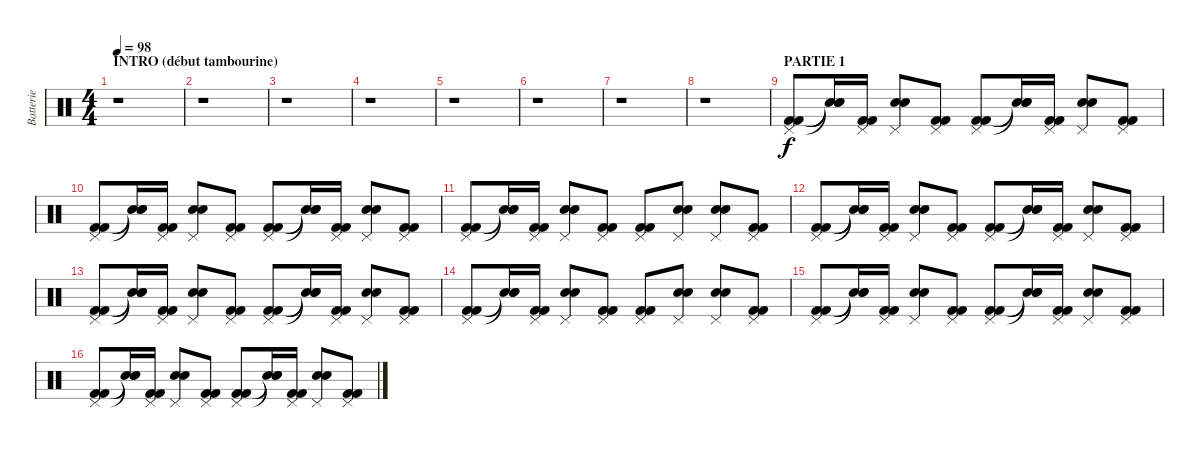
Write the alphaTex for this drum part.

\track ("Batterie" "Batterie") {instrument percussion}
\staff {score}
\articulation defaults
\ts (4 4)
\section ("" "INTRO (début tambourine)")
\tempo 98
\clef neutral
\ks c
r.1{dy f} |
r.1 |
r.1 |
r.1 |
r.1 |
r.1 |
r.1 |
r.1 |
\section ("" "PARTIE 1")
("Pedal Hi-Hat (hit)" "Kick (hit) 2" "Kick (hit) 2").8 ("Snare (hit)"{t} "Snare (hit)"{t} "Snare (hit)"{t}).16 ("Pedal Hi-Hat (hit)" "Kick (hit) 2" "Kick (hit) 2").16 ("Pedal Hi-Hat (hit)" "Electric Snare (hit)" "Electric Snare (hit)").8 ("Pedal Hi-Hat (hit)" "Kick (hit) 2" "Kick (hit) 2").8 ("Pedal Hi-Hat (hit)" "Kick (hit) 2" "Kick (hit) 2").8 ("Snare (hit)"{t} "Snare (hit)"{t} "Snare (hit)"{t}).16 ("Pedal Hi-Hat (hit)" "Kick (hit) 2" "Kick (hit) 2").16 ("Pedal Hi-Hat (hit)" "Electric Snare (hit)" "Electric Snare (hit)").8 ("Pedal Hi-Hat (hit)" "Kick (hit) 2" "Kick (hit) 2").8 |
("Pedal Hi-Hat (hit)" "Kick (hit) 2" "Kick (hit) 2").8 ("Snare (hit)"{t} "Snare (hit)"{t} "Snare (hit)"{t}).16 ("Pedal Hi-Hat (hit)" "Kick (hit) 2" "Kick (hit) 2").16 ("Pedal Hi-Hat (hit)" "Electric Snare (hit)" "Electric Snare (hit)").8 ("Pedal Hi-Hat (hit)" "Kick (hit) 2" "Kick (hit) 2").8 ("Pedal Hi-Hat (hit)" "Kick (hit) 2" "Kick (hit) 2").8 ("Snare (hit)"{t} "Snare (hit)"{t} "Snare (hit)"{t}).16 ("Pedal Hi-Hat (hit)" "Kick (hit) 2" "Kick (hit) 2").16 ("Pedal Hi-Hat (hit)" "Electric Snare (hit)" "Electric Snare (hit)").8 ("Pedal Hi-Hat (hit)" "Kick (hit) 2" "Kick (hit) 2").8 |
("Pedal Hi-Hat (hit)" "Kick (hit) 2" "Kick (hit) 2").8 ("Snare (hit)"{t} "Snare (hit)"{t} "Snare (hit)"{t}).16 ("Pedal Hi-Hat (hit)" "Kick (hit) 2" "Kick (hit) 2").16 ("Pedal Hi-Hat (hit)" "Electric Snare (hit)" "Electric Snare (hit)").8 ("Pedal Hi-Hat (hit)" "Kick (hit) 2" "Kick (hit) 2").8 ("Pedal Hi-Hat (hit)" "Kick (hit) 2" "Kick (hit) 2").8 ("Pedal Hi-Hat (hit)" "Electric Snare (hit)" "Electric Snare (hit)").8 ("Pedal Hi-Hat (hit)" "Electric Snare (hit)" "Electric Snare (hit)").8 ("Pedal Hi-Hat (hit)" "Kick (hit) 2" "Kick (hit) 2").8 |
("Pedal Hi-Hat (hit)" "Kick (hit) 2" "Kick (hit) 2").8 ("Snare (hit)"{t} "Snare (hit)"{t} "Snare (hit)"{t}).16 ("Pedal Hi-Hat (hit)" "Kick (hit) 2" "Kick (hit) 2").16 ("Pedal Hi-Hat (hit)" "Electric Snare (hit)" "Electric Snare (hit)").8 ("Pedal Hi-Hat (hit)" "Kick (hit) 2" "Kick (hit) 2").8 ("Pedal Hi-Hat (hit)" "Kick (hit) 2" "Kick (hit) 2").8 ("Snare (hit)"{t} "Snare (hit)"{t} "Snare (hit)"{t}).16 ("Pedal Hi-Hat (hit)" "Kick (hit) 2" "Kick (hit) 2").16 ("Pedal Hi-Hat (hit)" "Electric Snare (hit)" "Electric Snare (hit)").8 ("Pedal Hi-Hat (hit)" "Kick (hit) 2" "Kick (hit) 2").8 |
("Pedal Hi-Hat (hit)" "Kick (hit) 2" "Kick (hit) 2").8 ("Snare (hit)"{t} "Snare (hit)"{t} "Snare (hit)"{t}).16 ("Pedal Hi-Hat (hit)" "Kick (hit) 2" "Kick (hit) 2").16 ("Pedal Hi-Hat (hit)" "Electric Snare (hit)" "Electric Snare (hit)").8 ("Pedal Hi-Hat (hit)" "Kick (hit) 2" "Kick (hit) 2").8 ("Pedal Hi-Hat (hit)" "Kick (hit) 2" "Kick (hit) 2").8 ("Snare (hit)"{t} "Snare (hit)"{t} "Snare (hit)"{t}).16 ("Pedal Hi-Hat (hit)" "Kick (hit) 2" "Kick (hit) 2").16 ("Pedal Hi-Hat (hit)" "Electric Snare (hit)" "Electric Snare (hit)").8 ("Pedal Hi-Hat (hit)" "Kick (hit) 2" "Kick (hit) 2").8 |
("Pedal Hi-Hat (hit)" "Kick (hit) 2" "Kick (hit) 2").8 ("Snare (hit)"{t} "Snare (hit)"{t} "Snare (hit)"{t}).16 ("Pedal Hi-Hat (hit)" "Kick (hit) 2" "Kick (hit) 2").16 ("Pedal Hi-Hat (hit)" "Electric Snare (hit)" "Electric Snare (hit)").8 ("Pedal Hi-Hat (hit)" "Kick (hit) 2" "Kick (hit) 2").8 ("Pedal Hi-Hat (hit)" "Kick (hit) 2" "Kick (hit) 2").8 ("Pedal Hi-Hat (hit)" "Electric Snare (hit)" "Electric Snare (hit)").8 ("Pedal Hi-Hat (hit)" "Electric Snare (hit)" "Electric Snare (hit)").8 ("Pedal Hi-Hat (hit)" "Kick (hit) 2" "Kick (hit) 2").8 |
("Pedal Hi-Hat (hit)" "Kick (hit) 2" "Kick (hit) 2").8 ("Snare (hit)"{t} "Snare (hit)"{t} "Snare (hit)"{t}).16 ("Pedal Hi-Hat (hit)" "Kick (hit) 2" "Kick (hit) 2").16 ("Pedal Hi-Hat (hit)" "Electric Snare (hit)" "Electric Snare (hit)").8 ("Pedal Hi-Hat (hit)" "Kick (hit) 2" "Kick (hit) 2").8 ("Pedal Hi-Hat (hit)" "Kick (hit) 2" "Kick (hit) 2").8 ("Snare (hit)"{t} "Snare (hit)"{t} "Snare (hit)"{t}).16 ("Pedal Hi-Hat (hit)" "Kick (hit) 2" "Kick (hit) 2").16 ("Pedal Hi-Hat (hit)" "Electric Snare (hit)" "Electric Snare (hit)").8 ("Pedal Hi-Hat (hit)" "Kick (hit) 2" "Kick (hit) 2").8 |
("Pedal Hi-Hat (hit)" "Kick (hit) 2" "Kick (hit) 2").8 ("Snare (hit)"{t} "Snare (hit)"{t} "Snare (hit)"{t}).16 ("Pedal Hi-Hat (hit)" "Kick (hit) 2" "Kick (hit) 2").16 ("Pedal Hi-Hat (hit)" "Electric Snare (hit)" "Electric Snare (hit)").8 ("Pedal Hi-Hat (hit)" "Kick (hit) 2" "Kick (hit) 2").8 ("Pedal Hi-Hat (hit)" "Kick (hit) 2" "Kick (hit) 2").8 ("Snare (hit)"{t} "Snare (hit)"{t} "Snare (hit)"{t}).16 ("Pedal Hi-Hat (hit)" "Kick (hit) 2" "Kick (hit) 2").16 ("Pedal Hi-Hat (hit)" "Electric Snare (hit)" "Electric Snare (hit)").8 ("Pedal Hi-Hat (hit)" "Kick (hit) 2" "Kick (hit) 2").8
